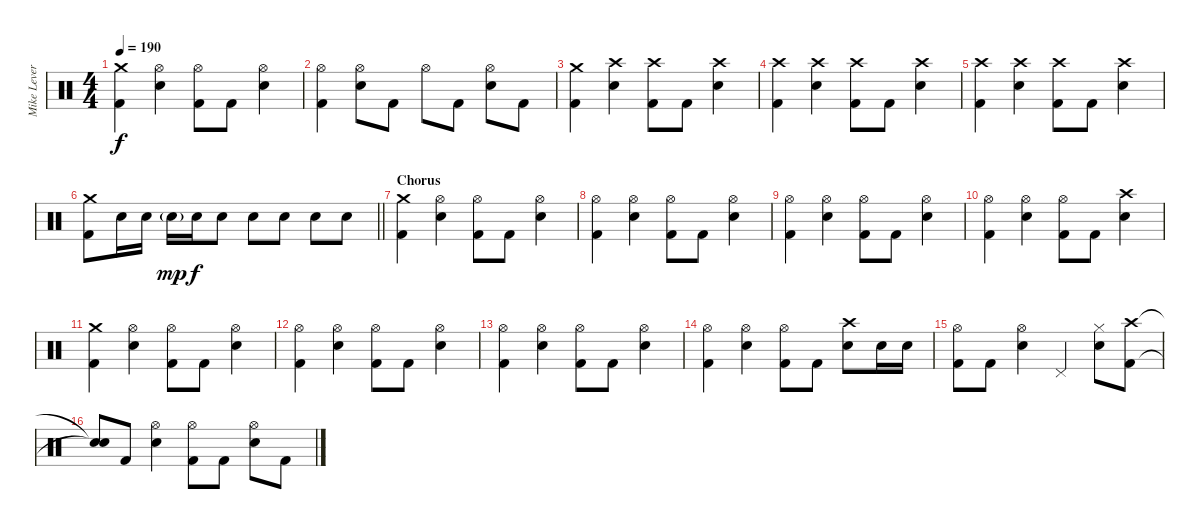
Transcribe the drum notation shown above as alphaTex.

\track ("Mike Leverence - Drums" "Mike Lever") {instrument percussion}
\staff {score}
\articulation defaults
\ts (4 4)
\tempo 190
\clef neutral
\ks c
("Crash medium (hit)" "Kick (hit) 2").4{dy f} ("Hi-Hat (open)" "Electric Snare (hit)").4 ("Hi-Hat (open)" "Kick (hit) 2").8 "Kick (hit) 2".8 ("Hi-Hat (open)" "Electric Snare (hit)").4 |
("Hi-Hat (open)" "Kick (hit) 2").4 ("Hi-Hat (open)" "Electric Snare (hit)").8 "Kick (hit) 2".8 "Hi-Hat (open)".8 "Kick (hit) 2".8 ("Hi-Hat (open)" "Electric Snare (hit)").8 "Kick (hit) 2".8 |
("Crash medium (hit)" "Kick (hit) 2").4 ("Crash high (hit)" "Electric Snare (hit)").4 ("Crash high (hit)" "Kick (hit) 2").8 "Kick (hit) 2".8 ("Crash high (hit)" "Electric Snare (hit)").4 |
("Crash high (hit)" "Kick (hit) 2").4 ("Crash high (hit)" "Electric Snare (hit)").4 ("Crash high (hit)" "Kick (hit) 2").8 "Kick (hit) 2".8 ("Crash high (hit)" "Electric Snare (hit)").4 |
("Crash high (hit)" "Kick (hit) 2").4 ("Crash high (hit)" "Electric Snare (hit)").4 ("Crash high (hit)" "Kick (hit) 2").8 "Kick (hit) 2".8 ("Crash high (hit)" "Electric Snare (hit)").4 |
\barLineRight lightlight
("Crash medium (hit)" "Kick (hit) 2").8 "Electric Snare (hit)".16 "Electric Snare (hit)".16 "Electric Snare (hit)"{g}.16{dy mp} "Electric Snare (hit)".16{dy f} "Electric Snare (hit)".8 "Electric Snare (hit)".8 "Electric Snare (hit)".8 "Electric Snare (hit)".8 "Electric Snare (hit)".8 |
\section ("" "Chorus")
("Crash medium (hit)" "Kick (hit) 2").4 ("Hi-Hat (open)" "Electric Snare (hit)").4 ("Hi-Hat (open)" "Kick (hit) 2").8 "Kick (hit) 2".8 ("Hi-Hat (open)" "Electric Snare (hit)").4 |
("Hi-Hat (open)" "Kick (hit) 2").4 ("Hi-Hat (open)" "Electric Snare (hit)").4 ("Hi-Hat (open)" "Kick (hit) 2").8 "Kick (hit) 2".8 ("Hi-Hat (open)" "Electric Snare (hit)").4 |
("Hi-Hat (open)" "Kick (hit) 2").4 ("Hi-Hat (open)" "Electric Snare (hit)").4 ("Hi-Hat (open)" "Kick (hit) 2").8 "Kick (hit) 2".8 ("Hi-Hat (open)" "Electric Snare (hit)").4 |
("Hi-Hat (open)" "Kick (hit) 2").4 ("Hi-Hat (open)" "Electric Snare (hit)").4 ("Hi-Hat (open)" "Kick (hit) 2").8 "Kick (hit) 2".8 ("Crash high (hit)" "Electric Snare (hit)").4 |
("Crash medium (hit)" "Kick (hit) 2").4 ("Hi-Hat (open)" "Electric Snare (hit)").4 ("Hi-Hat (open)" "Kick (hit) 2").8 "Kick (hit) 2".8 ("Hi-Hat (open)" "Electric Snare (hit)").4 |
("Hi-Hat (open)" "Kick (hit) 2").4 ("Hi-Hat (open)" "Electric Snare (hit)").4 ("Hi-Hat (open)" "Kick (hit) 2").8 "Kick (hit) 2".8 ("Hi-Hat (open)" "Electric Snare (hit)").4 |
("Hi-Hat (open)" "Kick (hit) 2").4 ("Hi-Hat (open)" "Electric Snare (hit)").4 ("Hi-Hat (open)" "Kick (hit) 2").8 "Kick (hit) 2".8 ("Hi-Hat (open)" "Electric Snare (hit)").4 |
("Hi-Hat (open)" "Kick (hit) 2").4 ("Hi-Hat (open)" "Electric Snare (hit)").4 ("Hi-Hat (open)" "Kick (hit) 2").8 "Kick (hit) 2".8 ("Crash high (hit)" "Electric Snare (hit)").8 "Electric Snare (hit)".16 "Electric Snare (hit)".16 |
("Hi-Hat (open)" "Kick (hit) 2").8 "Kick (hit) 2".8 ("Hi-Hat (open)" "Electric Snare (hit)").4 "Pedal Hi-Hat (hit)".4 ("Hi-Hat (closed)" "Electric Snare (hit)").8 ("Crash high (hit)" "Kick (hit) 2").8 |
("Snare (hit)"{t} "Snare (hit)"{t}).8 "Kick (hit) 2".8 ("Hi-Hat (open)" "Electric Snare (hit)").4 ("Hi-Hat (open)" "Kick (hit) 2").8 "Kick (hit) 2".8 ("Hi-Hat (open)" "Electric Snare (hit)").8 "Kick (hit) 2".8
